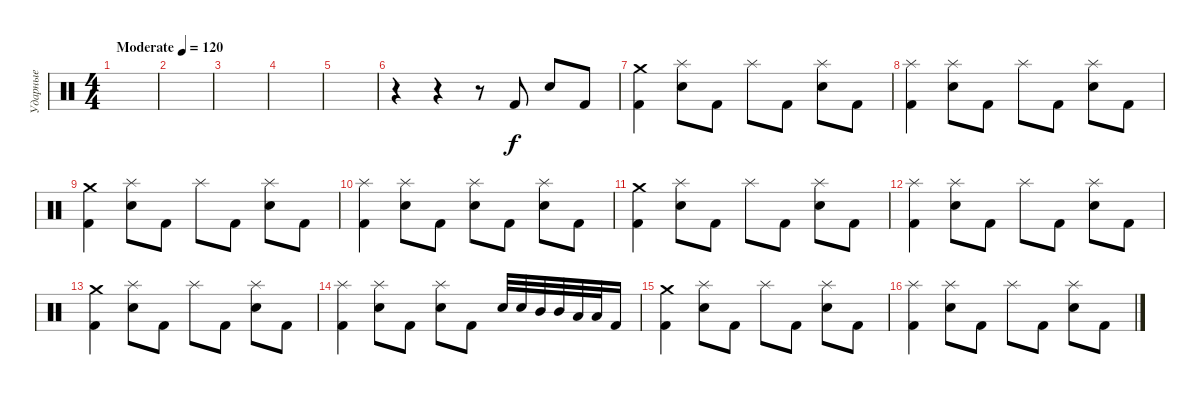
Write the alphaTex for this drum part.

\track ("Ударные" "Ударные") {instrument percussion}
\staff {score}
\articulation defaults
\ts (4 4)
\tempo (120 "Moderate")
\clef neutral
\ks c
|
|
|
|
|
r.4 r.4 r.8 "Kick (hit) 2".8 "Electric Snare (hit)".8 "Kick (hit) 2".8 |
("Crash medium (hit)" "Kick (hit) 2").4 ("Splash (hit)" "Electric Snare (hit)").8 "Kick (hit) 2".8 "Splash (hit)".8 "Kick (hit) 2".8 ("Splash (hit)" "Electric Snare (hit)").8 "Kick (hit) 2".8 |
("Splash (hit)" "Kick (hit) 2").4 ("Splash (hit)" "Electric Snare (hit)").8 "Kick (hit) 2".8 "Splash (hit)".8 "Kick (hit) 2".8 ("Splash (hit)" "Electric Snare (hit)").8 "Kick (hit) 2".8 |
("Crash medium (hit)" "Kick (hit) 2").4 ("Splash (hit)" "Electric Snare (hit)").8 "Kick (hit) 2".8 "Splash (hit)".8 "Kick (hit) 2".8 ("Splash (hit)" "Electric Snare (hit)").8 "Kick (hit) 2".8 |
("Splash (hit)" "Kick (hit) 2").4 ("Splash (hit)" "Electric Snare (hit)").8 "Kick (hit) 2".8 ("Splash (hit)" "Electric Snare (hit)").8 "Kick (hit) 2".8 ("Splash (hit)" "Electric Snare (hit)").8 "Kick (hit) 2".8 |
("Crash medium (hit)" "Kick (hit) 2").4 ("Splash (hit)" "Electric Snare (hit)").8 "Kick (hit) 2".8 "Splash (hit)".8 "Kick (hit) 2".8 ("Splash (hit)" "Electric Snare (hit)").8 "Kick (hit) 2".8 |
("Splash (hit)" "Kick (hit) 2").4 ("Splash (hit)" "Electric Snare (hit)").8 "Kick (hit) 2".8 "Splash (hit)".8 "Kick (hit) 2".8 ("Splash (hit)" "Electric Snare (hit)").8 "Kick (hit) 2".8 |
("Crash medium (hit)" "Kick (hit) 2").4 ("Splash (hit)" "Electric Snare (hit)").8 "Kick (hit) 2".8 "Splash (hit)".8 "Kick (hit) 2".8 ("Splash (hit)" "Electric Snare (hit)").8 "Kick (hit) 2".8 |
("Splash (hit)" "Kick (hit) 2").4 ("Splash (hit)" "Electric Snare (hit)").8 "Kick (hit) 2".8 ("Splash (hit)" "Electric Snare (hit)").8 "Kick (hit) 2".8 "Electric Snare (hit)".32 "Electric Snare (hit)".32 "Mid Tom (hit)".32 "Mid Tom (hit)".32 "Low Tom (hit)".32 "Low Tom (hit)".32 "Kick (hit) 2".16 |
("Crash medium (hit)" "Kick (hit) 2").4 ("Splash (hit)" "Electric Snare (hit)").8 "Kick (hit) 2".8 "Splash (hit)".8 "Kick (hit) 2".8 ("Splash (hit)" "Electric Snare (hit)").8 "Kick (hit) 2".8 |
("Splash (hit)" "Kick (hit) 2").4 ("Splash (hit)" "Electric Snare (hit)").8 "Kick (hit) 2".8 "Splash (hit)".8 "Kick (hit) 2".8 ("Splash (hit)" "Electric Snare (hit)").8 "Kick (hit) 2".8
